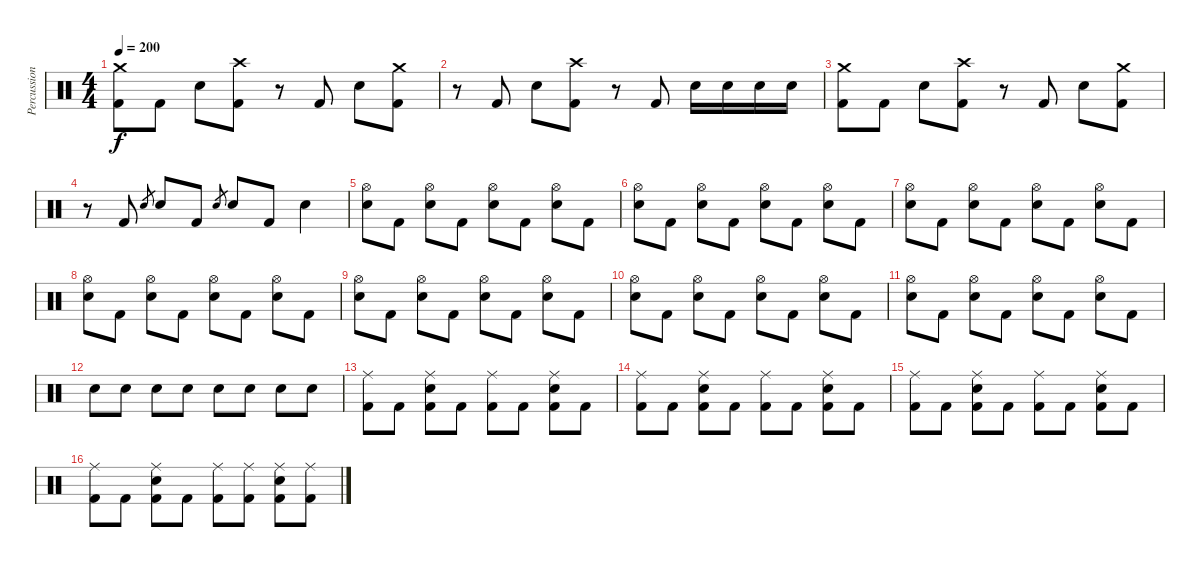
\track ("Percussion" "Percussion") {instrument percussion}
\staff {score}
\articulation defaults
\ts (4 4)
\tempo 200
\clef neutral
\ks c
("Crash medium (hit)" "Kick (hit) 2").8{dy f} "Kick (hit) 2".8 "Snare (hit) 2".8 ("Crash high (hit)" "Kick (hit) 2").8 r.8 "Kick (hit) 2".8 "Snare (hit) 2".8 ("Crash medium (hit)" "Kick (hit) 2").8 |
r.8 "Kick (hit) 2".8 "Snare (hit) 2".8 ("Crash high (hit)" "Kick (hit) 2").8 r.8 "Kick (hit) 2".8 "Snare (hit) 2".16 "Snare (hit) 2".16 "Snare (hit) 2".16 "Snare (hit) 2".16 |
("Crash medium (hit)" "Kick (hit) 2").8 "Kick (hit) 2".8 "Snare (hit) 2".8 ("Crash high (hit)" "Kick (hit) 2").8 r.8 "Kick (hit) 2".8 "Snare (hit) 2".8 ("Crash medium (hit)" "Kick (hit) 2").8 |
r.8 "Kick (hit) 2".8 "Snare (hit) 2".8{gr} "Snare (hit) 2".8 "Kick (hit) 2".8 "Snare (hit) 2".8{gr} "Snare (hit) 2".8 "Kick (hit) 2".8 "Snare (hit) 2".4 |
("Hi-Hat (open)" "Snare (hit) 2").8 "Kick (hit) 2".8 ("Hi-Hat (open)" "Snare (hit) 2").8 "Kick (hit) 2".8 ("Hi-Hat (open)" "Snare (hit) 2").8 "Kick (hit) 2".8 ("Hi-Hat (open)" "Snare (hit) 2").8 "Kick (hit) 2".8 |
("Hi-Hat (open)" "Snare (hit) 2").8 "Kick (hit) 2".8 ("Hi-Hat (open)" "Snare (hit) 2").8 "Kick (hit) 2".8 ("Hi-Hat (open)" "Snare (hit) 2").8 "Kick (hit) 2".8 ("Hi-Hat (open)" "Snare (hit) 2").8 "Kick (hit) 2".8 |
("Hi-Hat (open)" "Snare (hit) 2").8 "Kick (hit) 2".8 ("Hi-Hat (open)" "Snare (hit) 2").8 "Kick (hit) 2".8 ("Hi-Hat (open)" "Snare (hit) 2").8 "Kick (hit) 2".8 ("Hi-Hat (open)" "Snare (hit) 2").8 "Kick (hit) 2".8 |
("Hi-Hat (open)" "Snare (hit) 2").8 "Kick (hit) 2".8 ("Hi-Hat (open)" "Snare (hit) 2").8 "Kick (hit) 2".8 ("Hi-Hat (open)" "Snare (hit) 2").8 "Kick (hit) 2".8 ("Hi-Hat (open)" "Snare (hit) 2").8 "Kick (hit) 2".8 |
("Hi-Hat (open)" "Snare (hit) 2").8 "Kick (hit) 2".8 ("Hi-Hat (open)" "Snare (hit) 2").8 "Kick (hit) 2".8 ("Hi-Hat (open)" "Snare (hit) 2").8 "Kick (hit) 2".8 ("Hi-Hat (open)" "Snare (hit) 2").8 "Kick (hit) 2".8 |
("Hi-Hat (open)" "Snare (hit) 2").8 "Kick (hit) 2".8 ("Hi-Hat (open)" "Snare (hit) 2").8 "Kick (hit) 2".8 ("Hi-Hat (open)" "Snare (hit) 2").8 "Kick (hit) 2".8 ("Hi-Hat (open)" "Snare (hit) 2").8 "Kick (hit) 2".8 |
("Hi-Hat (open)" "Snare (hit) 2").8 "Kick (hit) 2".8 ("Hi-Hat (open)" "Snare (hit) 2").8 "Kick (hit) 2".8 ("Hi-Hat (open)" "Snare (hit) 2").8 "Kick (hit) 2".8 ("Hi-Hat (open)" "Snare (hit) 2").8 "Kick (hit) 2".8 |
"Snare (hit) 2".8 "Snare (hit) 2".8 "Snare (hit) 2".8 "Snare (hit) 2".8 "Snare (hit) 2".8 "Snare (hit) 2".8 "Snare (hit) 2".8 "Snare (hit) 2".8 |
("Ride (middle)" "Kick (hit) 2").8 "Kick (hit) 2".8 ("Ride (middle)" "Snare (hit) 2" "Kick (hit) 2").8 "Kick (hit) 2".8 ("Ride (middle)" "Kick (hit) 2").8 "Kick (hit) 2".8 ("Ride (middle)" "Snare (hit) 2" "Kick (hit) 2").8 "Kick (hit) 2".8 |
("Ride (middle)" "Kick (hit) 2").8 "Kick (hit) 2".8 ("Ride (middle)" "Snare (hit) 2" "Kick (hit) 2").8 "Kick (hit) 2".8 ("Ride (middle)" "Kick (hit) 2").8 "Kick (hit) 2".8 ("Ride (middle)" "Snare (hit) 2" "Kick (hit) 2").8 "Kick (hit) 2".8 |
("Ride (middle)" "Kick (hit) 2").8 "Kick (hit) 2".8 ("Ride (middle)" "Snare (hit) 2" "Kick (hit) 2").8 "Kick (hit) 2".8 ("Ride (middle)" "Kick (hit) 2").8 "Kick (hit) 2".8 ("Ride (middle)" "Snare (hit) 2" "Kick (hit) 2").8 "Kick (hit) 2".8 |
("Ride (middle)" "Kick (hit) 2").8 "Kick (hit) 2".8 ("Ride (middle)" "Snare (hit) 2" "Kick (hit) 2").8 "Kick (hit) 2".8 ("Ride (middle)" "Kick (hit) 2").8 ("Ride (middle)" "Kick (hit) 2").8 ("Ride (middle)" "Snare (hit) 2" "Kick (hit) 2").8 ("Ride (middle)" "Kick (hit) 2").8
